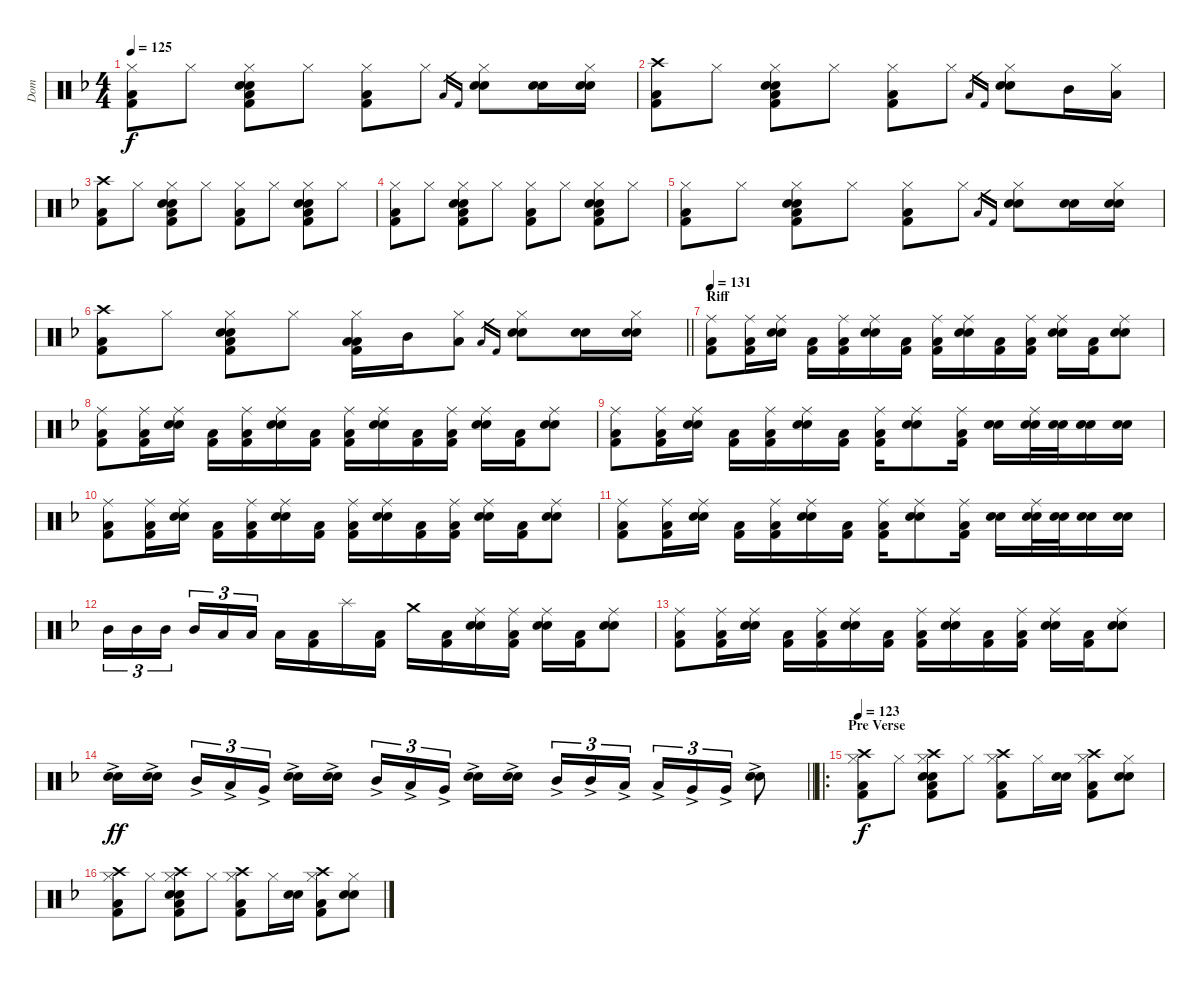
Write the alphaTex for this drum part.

\track ("Dom" "Dom") {instrument percussion}
\staff {score}
\articulation defaults
\ts (4 4)
\tempo 125
\clef neutral
\ks f
("Hi-Hat (closed)" "Low Floor Tom (hit)" "Kick (hit) 2").8{dy f} "Hi-Hat (closed)".8 ("Hi-Hat (closed)" "Snare (hit) 2" "Electric Snare (hit)" "Low Floor Tom (hit)" "Kick (hit) 2").8 "Hi-Hat (closed)".8 ("Hi-Hat (closed)" "Low Floor Tom (hit)" "Kick (hit) 2").8 "Hi-Hat (closed)".8 "Low Floor Tom (hit)".16{gr} "Kick (hit) 2".16{gr} ("Hi-Hat (closed)" "Snare (hit) 2" "Electric Snare (hit)").8 ("Snare (hit) 2" "Electric Snare (hit)").16 ("Hi-Hat (closed)" "Snare (hit) 2" "Electric Snare (hit)").16 |
("Crash high (hit)" "Low Floor Tom (hit)" "Kick (hit) 2").8 "Hi-Hat (closed)".8 ("Hi-Hat (closed)" "Snare (hit) 2" "Electric Snare (hit)" "Low Floor Tom (hit)" "Kick (hit) 2").8 "Hi-Hat (closed)".8 ("Hi-Hat (closed)" "Low Floor Tom (hit)" "Kick (hit) 2").8 "Hi-Hat (closed)".8 "Low Floor Tom (hit)".16{gr} "Kick (hit) 2".16{gr} ("Hi-Hat (closed)" "Snare (hit) 2" "Electric Snare (hit)").8 "Mid Tom (hit)".16 ("Hi-Hat (closed)" "Low Tom (hit)").16 |
("Crash high (hit)" "Low Floor Tom (hit)" "Kick (hit) 2").8 "Hi-Hat (closed)".8 ("Hi-Hat (closed)" "Snare (hit) 2" "Electric Snare (hit)" "Low Floor Tom (hit)" "Kick (hit) 2").8 "Hi-Hat (closed)".8 ("Hi-Hat (closed)" "Low Floor Tom (hit)" "Kick (hit) 2").8 "Hi-Hat (closed)".8 ("Hi-Hat (closed)" "Snare (hit) 2" "Electric Snare (hit)" "Low Floor Tom (hit)" "Kick (hit) 2").8 "Hi-Hat (closed)".8 |
("Hi-Hat (closed)" "Low Floor Tom (hit)" "Kick (hit) 2").8 "Hi-Hat (closed)".8 ("Hi-Hat (closed)" "Snare (hit) 2" "Electric Snare (hit)" "Low Floor Tom (hit)" "Kick (hit) 2").8 "Hi-Hat (closed)".8 ("Hi-Hat (closed)" "Low Floor Tom (hit)" "Kick (hit) 2").8 "Hi-Hat (closed)".8 ("Hi-Hat (closed)" "Snare (hit) 2" "Electric Snare (hit)" "Low Floor Tom (hit)" "Kick (hit) 2").8 "Hi-Hat (closed)".8 |
("Hi-Hat (closed)" "Low Floor Tom (hit)" "Kick (hit) 2").8 "Hi-Hat (closed)".8 ("Hi-Hat (closed)" "Snare (hit) 2" "Electric Snare (hit)" "Low Floor Tom (hit)" "Kick (hit) 2").8 "Hi-Hat (closed)".8 ("Hi-Hat (closed)" "Low Floor Tom (hit)" "Kick (hit) 2").8 "Hi-Hat (closed)".8 "Low Floor Tom (hit)".16{gr} "Kick (hit) 2".16{gr} ("Hi-Hat (closed)" "Snare (hit) 2" "Electric Snare (hit)").8 ("Snare (hit) 2" "Electric Snare (hit)").16 ("Hi-Hat (closed)" "Snare (hit) 2" "Electric Snare (hit)").16 |
\barLineRight lightlight
("Crash high (hit)" "Low Floor Tom (hit)" "Kick (hit) 2").8 "Hi-Hat (closed)".8 ("Hi-Hat (closed)" "Snare (hit) 2" "Electric Snare (hit)" "Low Floor Tom (hit)" "Kick (hit) 2").8 "Hi-Hat (closed)".8 ("Hi-Hat (closed)" "Low Tom (hit)" "Low Floor Tom (hit)" "Kick (hit) 2").16 "Mid Tom (hit)".16 ("Hi-Hat (closed)" "Low Tom (hit)").8 "Low Floor Tom (hit)".16{gr} "Kick (hit) 2".16{gr} ("Hi-Hat (closed)" "Snare (hit) 2" "Electric Snare (hit)").8 ("Snare (hit) 2" "Electric Snare (hit)").16 ("Hi-Hat (closed)" "Snare (hit) 2" "Electric Snare (hit)").16 |
\section ("" "Riff")
\tempo 131
("Ride (middle)" "Low Floor Tom (hit)" "Kick (hit) 2").8 ("Ride (middle)" "Low Floor Tom (hit)" "Kick (hit) 2").16 ("Ride (middle)" "Electric Snare (hit)" "Snare (hit) 2").16 ("Low Floor Tom (hit)" "Kick (hit) 2").16 ("Ride (middle)" "Low Floor Tom (hit)" "Kick (hit) 2").16 ("Ride (middle)" "Electric Snare (hit)" "Snare (hit) 2").16 ("Low Floor Tom (hit)" "Kick (hit) 2").16 ("Ride (middle)" "Low Floor Tom (hit)" "Kick (hit) 2").16 ("Ride (middle)" "Electric Snare (hit)" "Snare (hit) 2").16 ("Low Floor Tom (hit)" "Kick (hit) 2").16 ("Ride (middle)" "Low Floor Tom (hit)" "Kick (hit) 2").16 ("Ride (middle)" "Electric Snare (hit)" "Snare (hit) 2").16 ("Low Floor Tom (hit)" "Kick (hit) 2").16 ("Ride (middle)" "Electric Snare (hit)" "Snare (hit) 2").8 |
("Ride (middle)" "Low Floor Tom (hit)" "Kick (hit) 2").8 ("Ride (middle)" "Low Floor Tom (hit)" "Kick (hit) 2").16 ("Ride (middle)" "Electric Snare (hit)" "Snare (hit) 2").16 ("Low Floor Tom (hit)" "Kick (hit) 2").16 ("Ride (middle)" "Low Floor Tom (hit)" "Kick (hit) 2").16 ("Ride (middle)" "Electric Snare (hit)" "Snare (hit) 2").16 ("Low Floor Tom (hit)" "Kick (hit) 2").16 ("Ride (middle)" "Low Floor Tom (hit)" "Kick (hit) 2").16 ("Ride (middle)" "Electric Snare (hit)" "Snare (hit) 2").16 ("Low Floor Tom (hit)" "Kick (hit) 2").16 ("Ride (middle)" "Low Floor Tom (hit)" "Kick (hit) 2").16 ("Ride (middle)" "Electric Snare (hit)" "Snare (hit) 2").16 ("Low Floor Tom (hit)" "Kick (hit) 2").16 ("Ride (middle)" "Electric Snare (hit)" "Snare (hit) 2").8 |
("Ride (middle)" "Low Floor Tom (hit)" "Kick (hit) 2").8 ("Ride (middle)" "Low Floor Tom (hit)" "Kick (hit) 2").16 ("Ride (middle)" "Electric Snare (hit)" "Snare (hit) 2").16 ("Low Floor Tom (hit)" "Kick (hit) 2").16 ("Ride (middle)" "Low Floor Tom (hit)" "Kick (hit) 2").16 ("Ride (middle)" "Electric Snare (hit)" "Snare (hit) 2").16 ("Low Floor Tom (hit)" "Kick (hit) 2").16 ("Ride (middle)" "Low Floor Tom (hit)" "Kick (hit) 2").16 ("Ride (middle)" "Electric Snare (hit)" "Snare (hit) 2").8 ("Ride (middle)" "Low Floor Tom (hit)" "Kick (hit) 2").16 ("Electric Snare (hit)" "Snare (hit) 2").16 ("Ride (middle)" "Electric Snare (hit)" "Snare (hit) 2").32 ("Electric Snare (hit)" "Snare (hit) 2").32 ("Electric Snare (hit)" "Snare (hit) 2").16 ("Electric Snare (hit)" "Snare (hit) 2").16 |
("Ride (middle)" "Low Floor Tom (hit)" "Kick (hit) 2").8 ("Ride (middle)" "Low Floor Tom (hit)" "Kick (hit) 2").16 ("Ride (middle)" "Electric Snare (hit)" "Snare (hit) 2").16 ("Low Floor Tom (hit)" "Kick (hit) 2").16 ("Ride (middle)" "Low Floor Tom (hit)" "Kick (hit) 2").16 ("Ride (middle)" "Electric Snare (hit)" "Snare (hit) 2").16 ("Low Floor Tom (hit)" "Kick (hit) 2").16 ("Ride (middle)" "Low Floor Tom (hit)" "Kick (hit) 2").16 ("Ride (middle)" "Electric Snare (hit)" "Snare (hit) 2").16 ("Low Floor Tom (hit)" "Kick (hit) 2").16 ("Ride (middle)" "Low Floor Tom (hit)" "Kick (hit) 2").16 ("Ride (middle)" "Electric Snare (hit)" "Snare (hit) 2").16 ("Low Floor Tom (hit)" "Kick (hit) 2").16 ("Ride (middle)" "Electric Snare (hit)" "Snare (hit) 2").8 |
("Ride (middle)" "Low Floor Tom (hit)" "Kick (hit) 2").8 ("Ride (middle)" "Low Floor Tom (hit)" "Kick (hit) 2").16 ("Ride (middle)" "Electric Snare (hit)" "Snare (hit) 2").16 ("Low Floor Tom (hit)" "Kick (hit) 2").16 ("Ride (middle)" "Low Floor Tom (hit)" "Kick (hit) 2").16 ("Ride (middle)" "Electric Snare (hit)" "Snare (hit) 2").16 ("Low Floor Tom (hit)" "Kick (hit) 2").16 ("Ride (middle)" "Low Floor Tom (hit)" "Kick (hit) 2").16 ("Ride (middle)" "Electric Snare (hit)" "Snare (hit) 2").8 ("Ride (middle)" "Low Floor Tom (hit)" "Kick (hit) 2").16 ("Electric Snare (hit)" "Snare (hit) 2").16 ("Ride (middle)" "Electric Snare (hit)" "Snare (hit) 2").32 ("Electric Snare (hit)" "Snare (hit) 2").32 ("Electric Snare (hit)" "Snare (hit) 2").16 ("Electric Snare (hit)" "Snare (hit) 2").16 |
"Mid Tom (hit)".16{tu (3 2)} "Mid Tom (hit)".16{tu (3 2)} "Mid Tom (hit)".16{tu (3 2) beam splitsecondary} "Mid Tom (hit)".16{tu (3 2)} "Low Tom (hit)".16{tu (3 2)} "Low Tom (hit)".16{tu (3 2)} "Low Tom (hit)".16 ("Low Floor Tom (hit)" "Kick (hit) 2").16 "Splash (hit)".16 ("Low Floor Tom (hit)" "Kick (hit) 2").16 "Crash medium (hit)".16 ("Low Floor Tom (hit)" "Kick (hit) 2").16 ("Ride (middle)" "Electric Snare (hit)" "Snare (hit) 2").16 ("Ride (middle)" "Low Floor Tom (hit)" "Kick (hit) 2").16 ("Ride (middle)" "Electric Snare (hit)" "Snare (hit) 2").16 ("Low Floor Tom (hit)" "Kick (hit) 2").16 ("Ride (middle)" "Electric Snare (hit)" "Snare (hit) 2").8 |
("Ride (middle)" "Low Floor Tom (hit)" "Kick (hit) 2").8 ("Ride (middle)" "Low Floor Tom (hit)" "Kick (hit) 2").16 ("Ride (middle)" "Electric Snare (hit)" "Snare (hit) 2").16 ("Low Floor Tom (hit)" "Kick (hit) 2").16 ("Ride (middle)" "Low Floor Tom (hit)" "Kick (hit) 2").16 ("Ride (middle)" "Electric Snare (hit)" "Snare (hit) 2").16 ("Low Floor Tom (hit)" "Kick (hit) 2").16 ("Ride (middle)" "Low Floor Tom (hit)" "Kick (hit) 2").16 ("Ride (middle)" "Electric Snare (hit)" "Snare (hit) 2").16 ("Low Floor Tom (hit)" "Kick (hit) 2").16 ("Ride (middle)" "Low Floor Tom (hit)" "Kick (hit) 2").16 ("Ride (middle)" "Electric Snare (hit)" "Snare (hit) 2").16 ("Low Floor Tom (hit)" "Kick (hit) 2").16 ("Ride (middle)" "Electric Snare (hit)" "Snare (hit) 2").8 |
\barLineRight lightlight
("Snare (hit) 2" "Electric Snare (hit)"{ac}).16{dy ff} ("Snare (hit) 2" "Electric Snare (hit)"{ac}).16{beam splitsecondary} "Mid Tom (hit)"{ac}.16{tu (3 2)} "Low Tom (hit)"{ac}.16{tu (3 2)} "Very Low Tom (hit)"{ac}.16{tu (3 2)} ("Snare (hit) 2" "Electric Snare (hit)"{ac}).16 ("Snare (hit) 2" "Electric Snare (hit)"{ac}).16{beam splitsecondary} "Mid Tom (hit)"{ac}.16{tu (3 2)} "Low Tom (hit)"{ac}.16{tu (3 2)} "Very Low Tom (hit)"{ac}.16{tu (3 2)} ("Snare (hit) 2" "Electric Snare (hit)"{ac}).16 ("Snare (hit) 2" "Electric Snare (hit)"{ac}).16{beam splitsecondary} "Mid Tom (hit)"{ac}.16{tu (3 2)} "Mid Tom (hit)"{ac}.16{tu (3 2)} "Low Tom (hit)"{ac}.16{tu (3 2)} "Low Tom (hit)"{ac}.16{tu (3 2)} "Very Low Tom (hit)"{ac}.16{tu (3 2)} "Very Low Tom (hit)"{ac}.16{tu (3 2)} ("Electric Snare (hit)" "Snare (hit) 2"{ac}).8 |
\ro
\section ("" "Pre Verse")
\tempo 123
("Crash high (hit)" "Hi-Hat (closed)" "Low Floor Tom (hit)" "Kick (hit) 2").8{dy f} "Hi-Hat (closed)".8 ("Crash high (hit)" "Hi-Hat (closed)" "Snare (hit) 2" "Electric Snare (hit)" "Low Floor Tom (hit)" "Kick (hit) 2").8 "Hi-Hat (closed)".8 ("Crash high (hit)" "Hi-Hat (closed)" "Low Floor Tom (hit)" "Kick (hit) 2").8 "Hi-Hat (closed)".16 ("Snare (hit) 2" "Electric Snare (hit)").16 ("Crash high (hit)" "Hi-Hat (closed)" "Low Floor Tom (hit)" "Kick (hit) 2").8 ("Hi-Hat (closed)" "Snare (hit) 2" "Electric Snare (hit)").8 |
("Crash high (hit)" "Hi-Hat (closed)" "Low Floor Tom (hit)" "Kick (hit) 2").8 "Hi-Hat (closed)".8 ("Crash high (hit)" "Hi-Hat (closed)" "Snare (hit) 2" "Electric Snare (hit)" "Low Floor Tom (hit)" "Kick (hit) 2").8 "Hi-Hat (closed)".8 ("Crash high (hit)" "Hi-Hat (closed)" "Low Floor Tom (hit)" "Kick (hit) 2").8 "Hi-Hat (closed)".16 ("Snare (hit) 2" "Electric Snare (hit)").16 ("Crash high (hit)" "Hi-Hat (closed)" "Low Floor Tom (hit)" "Kick (hit) 2").8 ("Hi-Hat (closed)" "Snare (hit) 2" "Electric Snare (hit)").8
